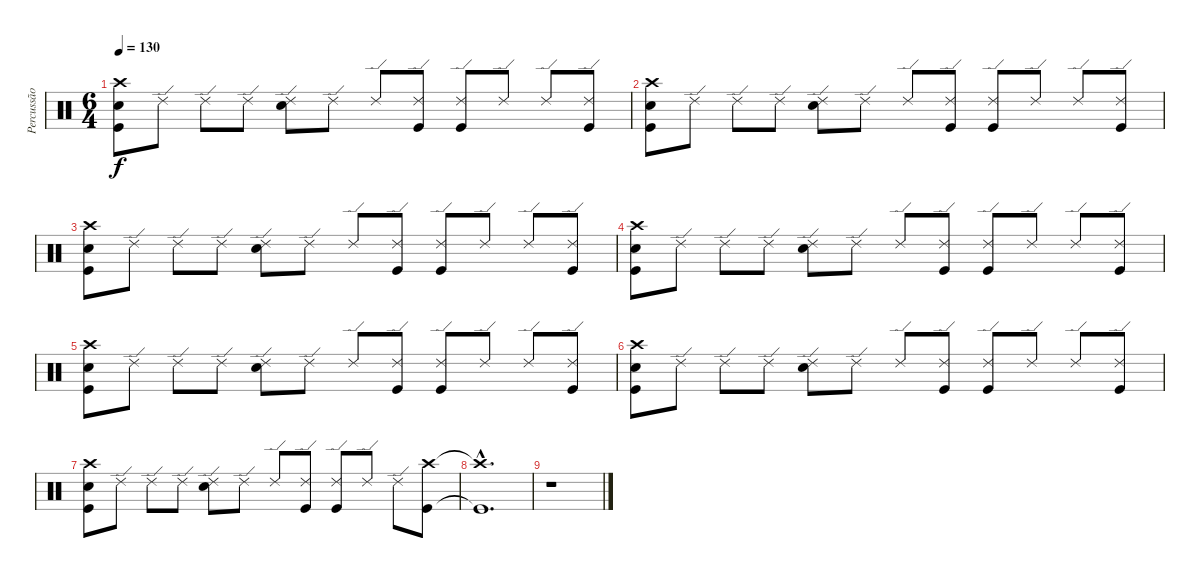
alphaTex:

\track ("Percussão" "Percussão") {instrument percussion}
\staff {score}
\articulation defaults
\ts (6 4)
\tempo 130
\clef neutral
\ks c
("Crash high (hit)" "Snare (hit) 2" "Kick (hit)").8{dy f} "Ride (edge) 2".8 "Ride (edge) 2".8 "Ride (edge) 2".8 ("Ride (edge) 2" "Snare (hit) 2").8 "Ride (edge) 2".8 "Ride (edge) 2".8 ("Ride (edge) 2" "Kick (hit)").8 ("Ride (edge) 2" "Kick (hit)").8 "Ride (edge) 2".8 "Ride (edge) 2".8 ("Ride (edge) 2" "Kick (hit)").8 |
("Crash high (hit)" "Snare (hit) 2" "Kick (hit)").8 "Ride (edge) 2".8 "Ride (edge) 2".8 "Ride (edge) 2".8 ("Ride (edge) 2" "Snare (hit) 2").8 "Ride (edge) 2".8 "Ride (edge) 2".8 ("Ride (edge) 2" "Kick (hit)").8 ("Ride (edge) 2" "Kick (hit)").8 "Ride (edge) 2".8 "Ride (edge) 2".8 ("Ride (edge) 2" "Kick (hit)").8 |
("Crash high (hit)" "Snare (hit) 2" "Kick (hit)").8 "Ride (edge) 2".8 "Ride (edge) 2".8 "Ride (edge) 2".8 ("Ride (edge) 2" "Snare (hit) 2").8 "Ride (edge) 2".8 "Ride (edge) 2".8 ("Ride (edge) 2" "Kick (hit)").8 ("Ride (edge) 2" "Kick (hit)").8 "Ride (edge) 2".8 "Ride (edge) 2".8 ("Ride (edge) 2" "Kick (hit)").8 |
("Crash high (hit)" "Snare (hit) 2" "Kick (hit)").8 "Ride (edge) 2".8 "Ride (edge) 2".8 "Ride (edge) 2".8 ("Ride (edge) 2" "Snare (hit) 2").8 "Ride (edge) 2".8 "Ride (edge) 2".8 ("Ride (edge) 2" "Kick (hit)").8 ("Ride (edge) 2" "Kick (hit)").8 "Ride (edge) 2".8 "Ride (edge) 2".8 ("Ride (edge) 2" "Kick (hit)").8 |
("Crash high (hit)" "Snare (hit) 2" "Kick (hit)").8 "Ride (edge) 2".8 "Ride (edge) 2".8 "Ride (edge) 2".8 ("Ride (edge) 2" "Snare (hit) 2").8 "Ride (edge) 2".8 "Ride (edge) 2".8 ("Ride (edge) 2" "Kick (hit)").8 ("Ride (edge) 2" "Kick (hit)").8 "Ride (edge) 2".8 "Ride (edge) 2".8 ("Ride (edge) 2" "Kick (hit)").8 |
("Crash high (hit)" "Snare (hit) 2" "Kick (hit)").8 "Ride (edge) 2".8 "Ride (edge) 2".8 "Ride (edge) 2".8 ("Ride (edge) 2" "Snare (hit) 2").8 "Ride (edge) 2".8 "Ride (edge) 2".8 ("Ride (edge) 2" "Kick (hit)").8 ("Ride (edge) 2" "Kick (hit)").8 "Ride (edge) 2".8 "Ride (edge) 2".8 ("Ride (edge) 2" "Kick (hit)").8 |
("Crash high (hit)" "Snare (hit) 2" "Kick (hit)").8 "Ride (edge) 2".8 "Ride (edge) 2".8 "Ride (edge) 2".8 ("Ride (edge) 2" "Snare (hit) 2").8 "Ride (edge) 2".8 "Ride (edge) 2".8 ("Ride (edge) 2" "Kick (hit)").8 ("Ride (edge) 2" "Kick (hit)").8 "Ride (edge) 2".8 "Ride (edge) 2".8 ("Crash high (hit)" "Kick (hit)").8 |
("Crash high (hit)"{hac t} "Kick (hit)"{hac t}).1{d} |
r.1
